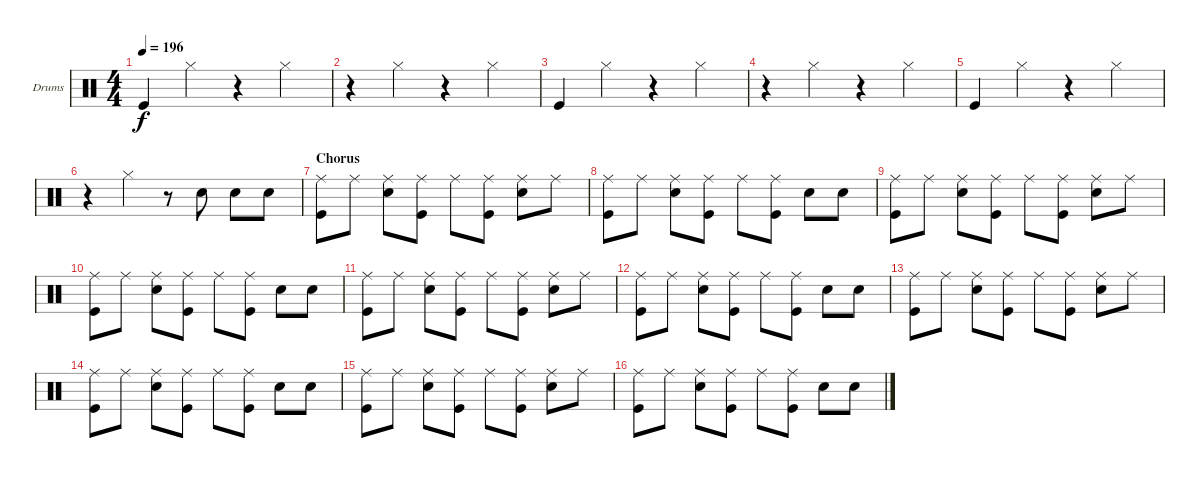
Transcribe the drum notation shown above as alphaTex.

\bracketExtendMode groupsimilarinstruments
\firstSystemTrackNameOrientation horizontal
\otherSystemsTrackNameOrientation horizontal
\track ("Fabrizio" "Drums") {instrument percussion}
\staff {score}
\articulation defaults
\ts (4 4)
\tempo 196
\clef neutral
\ks c "Kick (hit)".4{dy f} "Hi-Hat (closed)".4
r.4 "Hi-Hat (closed)".4 |
r.4 "Hi-Hat (closed)".4 r.4 "Hi-Hat (closed)".4 |
"Kick (hit)".4 "Hi-Hat (closed)".4 r.4 "Hi-Hat (closed)".4 |
r.4 "Hi-Hat (closed)".4 r.4 "Hi-Hat (closed)".4 |
"Kick (hit)".4 "Hi-Hat (closed)".4 r.4 "Hi-Hat (closed)".4 |
r.4 "Hi-Hat (closed)".4 r.8 "Snare (hit) 2".8 "Snare (hit) 2".8 "Snare (hit) 2".8 |
\section ("" "Chorus")
("Kick (hit)" "Ride (middle)").8 "Ride (middle)".8 ("Snare (hit) 2" "Ride (middle)").8 ("Kick (hit)" "Ride (middle)").8 "Ride (middle)".8 ("Kick (hit)" "Ride (middle)").8 ("Snare (hit) 2" "Ride (middle)").8 "Ride (middle)".8 |
("Kick (hit)" "Ride (middle)").8 "Ride (middle)".8 ("Snare (hit) 2" "Ride (middle)").8 ("Kick (hit)" "Ride (middle)").8 "Ride (middle)".8 ("Kick (hit)" "Ride (middle)").8 "Snare (hit) 2".8 "Snare (hit) 2".8 |
("Kick (hit)" "Ride (middle)").8 "Ride (middle)".8 ("Snare (hit) 2" "Ride (middle)").8 ("Kick (hit)" "Ride (middle)").8 "Ride (middle)".8 ("Kick (hit)" "Ride (middle)").8 ("Snare (hit) 2" "Ride (middle)").8 "Ride (middle)".8 |
("Kick (hit)" "Ride (middle)").8 "Ride (middle)".8 ("Snare (hit) 2" "Ride (middle)").8 ("Kick (hit)" "Ride (middle)").8 "Ride (middle)".8 ("Kick (hit)" "Ride (middle)").8 "Snare (hit) 2".8 "Snare (hit) 2".8 |
("Kick (hit)" "Ride (middle)").8 "Ride (middle)".8 ("Snare (hit) 2" "Ride (middle)").8 ("Kick (hit)" "Ride (middle)").8 "Ride (middle)".8 ("Kick (hit)" "Ride (middle)").8 ("Snare (hit) 2" "Ride (middle)").8 "Ride (middle)".8 |
("Kick (hit)" "Ride (middle)").8 "Ride (middle)".8 ("Snare (hit) 2" "Ride (middle)").8 ("Kick (hit)" "Ride (middle)").8 "Ride (middle)".8 ("Kick (hit)" "Ride (middle)").8 "Snare (hit) 2".8 "Snare (hit) 2".8 |
("Kick (hit)" "Ride (middle)").8 "Ride (middle)".8 ("Snare (hit) 2" "Ride (middle)").8 ("Kick (hit)" "Ride (middle)").8 "Ride (middle)".8 ("Kick (hit)" "Ride (middle)").8 ("Snare (hit) 2" "Ride (middle)").8 "Ride (middle)".8 |
("Kick (hit)" "Ride (middle)").8 "Ride (middle)".8 ("Snare (hit) 2" "Ride (middle)").8 ("Kick (hit)" "Ride (middle)").8 "Ride (middle)".8 ("Kick (hit)" "Ride (middle)").8 "Snare (hit) 2".8 "Snare (hit) 2".8 |
("Kick (hit)" "Ride (middle)").8 "Ride (middle)".8 ("Snare (hit) 2" "Ride (middle)").8 ("Kick (hit)" "Ride (middle)").8 "Ride (middle)".8 ("Kick (hit)" "Ride (middle)").8 ("Snare (hit) 2" "Ride (middle)").8 "Ride (middle)".8 |
("Kick (hit)" "Ride (middle)").8 "Ride (middle)".8 ("Snare (hit) 2" "Ride (middle)").8 ("Kick (hit)" "Ride (middle)").8 "Ride (middle)".8 ("Kick (hit)" "Ride (middle)").8 "Snare (hit) 2".8 "Snare (hit) 2".8
